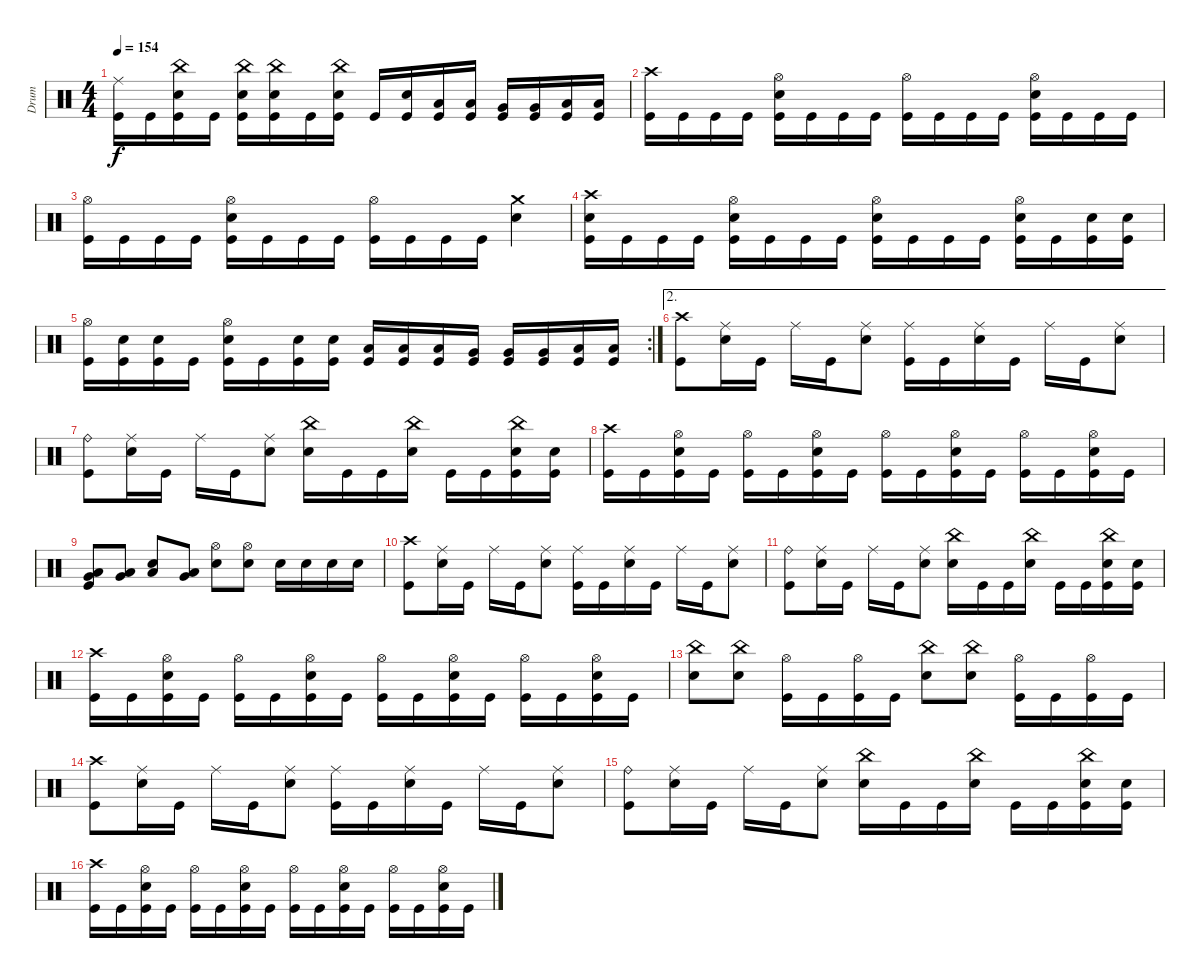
\track ("Drum" "Drum") {instrument percussion}
\staff {score}
\articulation defaults
\ts (4 4)
\tempo 154
\clef neutral
\ks c
("Kick (hit)" "Ride (middle)").16{dy f} "Kick (hit)".16 ("Kick (hit)" "Electric Snare (hit)" "China (hit)").16 "Kick (hit)".16 ("Kick (hit)" "Electric Snare (hit)" "China (hit)").16 ("Kick (hit)" "Electric Snare (hit)" "China (hit)").16 "Kick (hit)".16 ("Kick (hit)" "Electric Snare (hit)" "China (hit)").16 "Kick (hit)".16 ("Kick (hit)" "Electric Snare (hit)").16 ("Kick (hit)" "Low Tom (hit)").16 ("Kick (hit)" "Low Tom (hit)").16 ("Kick (hit)" "Very Low Tom (hit)").16 ("Kick (hit)" "Very Low Tom (hit)").16 ("Kick (hit)" "Low Floor Tom (hit)").16 ("Kick (hit)" "Low Floor Tom (hit)").16 |
("Kick (hit)" "Crash high (hit)").16 "Kick (hit)".16 "Kick (hit)".16 "Kick (hit)".16 ("Kick (hit)" "Electric Snare (hit)" "Hi-Hat (open)").16 "Kick (hit)".16 "Kick (hit)".16 "Kick (hit)".16 ("Kick (hit)" "Hi-Hat (open)").16 "Kick (hit)".16 "Kick (hit)".16 "Kick (hit)".16 ("Kick (hit)" "Electric Snare (hit)" "Hi-Hat (open)").16 "Kick (hit)".16 "Kick (hit)".16 "Kick (hit)".16 |
("Kick (hit)" "Hi-Hat (open)").16 "Kick (hit)".16 "Kick (hit)".16 "Kick (hit)".16 ("Kick (hit)" "Electric Snare (hit)" "Hi-Hat (open)").16 "Kick (hit)".16 "Kick (hit)".16 "Kick (hit)".16 ("Kick (hit)" "Hi-Hat (open)").16 "Kick (hit)".16 "Kick (hit)".16 "Kick (hit)".16 ("Electric Snare (hit)" "Crash medium (hit)").4 |
("Kick (hit)" "Electric Snare (hit)" "Crash high (hit)").16 "Kick (hit)".16 "Kick (hit)".16 "Kick (hit)".16 ("Kick (hit)" "Electric Snare (hit)" "Hi-Hat (open)").16 "Kick (hit)".16 "Kick (hit)".16 "Kick (hit)".16 ("Kick (hit)" "Electric Snare (hit)" "Hi-Hat (open)").16 "Kick (hit)".16 "Kick (hit)".16 "Kick (hit)".16 ("Kick (hit)" "Electric Snare (hit)" "Hi-Hat (open)").16 "Kick (hit)".16 ("Kick (hit)" "Electric Snare (hit)").16 ("Kick (hit)" "Electric Snare (hit)").16 |
\rc 2
("Kick (hit)" "Hi-Hat (open)").16 ("Kick (hit)" "Electric Snare (hit)").16 ("Kick (hit)" "Electric Snare (hit)").16 "Kick (hit)".16 ("Kick (hit)" "Electric Snare (hit)" "Hi-Hat (open)").16 "Kick (hit)".16 ("Kick (hit)" "Electric Snare (hit)").16 ("Kick (hit)" "Electric Snare (hit)").16 ("Kick (hit)" "Low Tom (hit)").16 ("Kick (hit)" "Low Tom (hit)").16 ("Kick (hit)" "Low Tom (hit)").16 ("Kick (hit)" "Very Low Tom (hit)").16 ("Kick (hit)" "Very Low Tom (hit)").16 ("Kick (hit)" "Very Low Tom (hit)").16 ("Kick (hit)" "Low Floor Tom (hit)").16 ("Kick (hit)" "Low Floor Tom (hit)").16 |
\ae 2
("Kick (hit)" "Crash high (hit)").8 ("Electric Snare (hit)" "Ride (middle)").16 "Kick (hit)".16 "Ride (middle)".16 "Kick (hit)".16 ("Electric Snare (hit)" "Ride (middle)").8 ("Kick (hit)" "Ride (middle)").16 "Kick (hit)".16 ("Electric Snare (hit)" "Ride (middle)").16 "Kick (hit)".16 "Ride (middle)".16 "Kick (hit)".16 ("Electric Snare (hit)" "Ride (middle)").8 |
("Kick (hit)" "Ride (bell)").8 ("Electric Snare (hit)" "Ride (middle)").16 "Kick (hit)".16 "Ride (middle)".16 "Kick (hit)".16 ("Electric Snare (hit)" "Ride (middle)").8 ("Electric Snare (hit)" "China (hit)").16 "Kick (hit)".16 "Kick (hit)".16 ("Electric Snare (hit)" "China (hit)").16 "Kick (hit)".16 "Kick (hit)".16 ("Kick (hit)" "Electric Snare (hit)" "China (hit)").16 ("Kick (hit)" "Electric Snare (hit)").16 |
("Kick (hit)" "Crash high (hit)").16 "Kick (hit)".16 ("Kick (hit)" "Electric Snare (hit)" "Hi-Hat (open)").16 "Kick (hit)".16 ("Kick (hit)" "Hi-Hat (open)").16 "Kick (hit)".16 ("Kick (hit)" "Electric Snare (hit)" "Hi-Hat (open)").16 "Kick (hit)".16 ("Kick (hit)" "Hi-Hat (open)").16 "Kick (hit)".16 ("Kick (hit)" "Electric Snare (hit)" "Hi-Hat (open)").16 "Kick (hit)".16 ("Kick (hit)" "Hi-Hat (open)").16 "Kick (hit)".16 ("Kick (hit)" "Electric Snare (hit)" "Hi-Hat (open)").16 "Kick (hit)".16 |
("Kick (hit)" "Very Low Tom (hit)" "Low Tom (hit)").8 ("Very Low Tom (hit)" "Low Tom (hit)").8 ("Electric Snare (hit)" "Low Floor Tom (hit)").8 ("Very Low Tom (hit)" "Low Tom (hit)").8 ("Electric Snare (hit)" "Hi-Hat (open)").8 ("Electric Snare (hit)" "Hi-Hat (open)").8 "Electric Snare (hit)".16 "Electric Snare (hit)".16 "Electric Snare (hit)".16 "Electric Snare (hit)".16 |
("Kick (hit)" "Crash high (hit)").8 ("Electric Snare (hit)" "Ride (middle)").16 "Kick (hit)".16 "Ride (middle)".16 "Kick (hit)".16 ("Electric Snare (hit)" "Ride (middle)").8 ("Kick (hit)" "Ride (middle)").16 "Kick (hit)".16 ("Electric Snare (hit)" "Ride (middle)").16 "Kick (hit)".16 "Ride (middle)".16 "Kick (hit)".16 ("Electric Snare (hit)" "Ride (middle)").8 |
("Kick (hit)" "Ride (bell)").8 ("Electric Snare (hit)" "Ride (middle)").16 "Kick (hit)".16 "Ride (middle)".16 "Kick (hit)".16 ("Electric Snare (hit)" "Ride (middle)").8 ("Electric Snare (hit)" "China (hit)").16 "Kick (hit)".16 "Kick (hit)".16 ("Electric Snare (hit)" "China (hit)").16 "Kick (hit)".16 "Kick (hit)".16 ("Kick (hit)" "Electric Snare (hit)" "China (hit)").16 ("Kick (hit)" "Electric Snare (hit)").16 |
("Kick (hit)" "Crash high (hit)").16 "Kick (hit)".16 ("Kick (hit)" "Electric Snare (hit)" "Hi-Hat (open)").16 "Kick (hit)".16 ("Kick (hit)" "Hi-Hat (open)").16 "Kick (hit)".16 ("Kick (hit)" "Electric Snare (hit)" "Hi-Hat (open)").16 "Kick (hit)".16 ("Kick (hit)" "Hi-Hat (open)").16 "Kick (hit)".16 ("Kick (hit)" "Electric Snare (hit)" "Hi-Hat (open)").16 "Kick (hit)".16 ("Kick (hit)" "Hi-Hat (open)").16 "Kick (hit)".16 ("Kick (hit)" "Electric Snare (hit)" "Hi-Hat (open)").16 "Kick (hit)".16 |
("Electric Snare (hit)" "China (hit)").8 ("Electric Snare (hit)" "China (hit)").8 ("Kick (hit)" "Hi-Hat (open)").16 "Kick (hit)".16 ("Kick (hit)" "Hi-Hat (open)").16 "Kick (hit)".16 ("Electric Snare (hit)" "China (hit)").8 ("Electric Snare (hit)" "China (hit)").8 ("Kick (hit)" "Hi-Hat (open)").16 "Kick (hit)".16 ("Kick (hit)" "Hi-Hat (open)").16 "Kick (hit)".16 |
("Kick (hit)" "Crash high (hit)").8 ("Electric Snare (hit)" "Ride (middle)").16 "Kick (hit)".16 "Ride (middle)".16 "Kick (hit)".16 ("Electric Snare (hit)" "Ride (middle)").8 ("Kick (hit)" "Ride (middle)").16 "Kick (hit)".16 ("Electric Snare (hit)" "Ride (middle)").16 "Kick (hit)".16 "Ride (middle)".16 "Kick (hit)".16 ("Electric Snare (hit)" "Ride (middle)").8 |
("Kick (hit)" "Ride (bell)").8 ("Electric Snare (hit)" "Ride (middle)").16 "Kick (hit)".16 "Ride (middle)".16 "Kick (hit)".16 ("Electric Snare (hit)" "Ride (middle)").8 ("Electric Snare (hit)" "China (hit)").16 "Kick (hit)".16 "Kick (hit)".16 ("Electric Snare (hit)" "China (hit)").16 "Kick (hit)".16 "Kick (hit)".16 ("Kick (hit)" "Electric Snare (hit)" "China (hit)").16 ("Kick (hit)" "Electric Snare (hit)").16 |
("Kick (hit)" "Crash high (hit)").16 "Kick (hit)".16 ("Kick (hit)" "Electric Snare (hit)" "Hi-Hat (open)").16 "Kick (hit)".16 ("Kick (hit)" "Hi-Hat (open)").16 "Kick (hit)".16 ("Kick (hit)" "Electric Snare (hit)" "Hi-Hat (open)").16 "Kick (hit)".16 ("Kick (hit)" "Hi-Hat (open)").16 "Kick (hit)".16 ("Kick (hit)" "Electric Snare (hit)" "Hi-Hat (open)").16 "Kick (hit)".16 ("Kick (hit)" "Hi-Hat (open)").16 "Kick (hit)".16 ("Kick (hit)" "Electric Snare (hit)" "Hi-Hat (open)").16 "Kick (hit)".16
